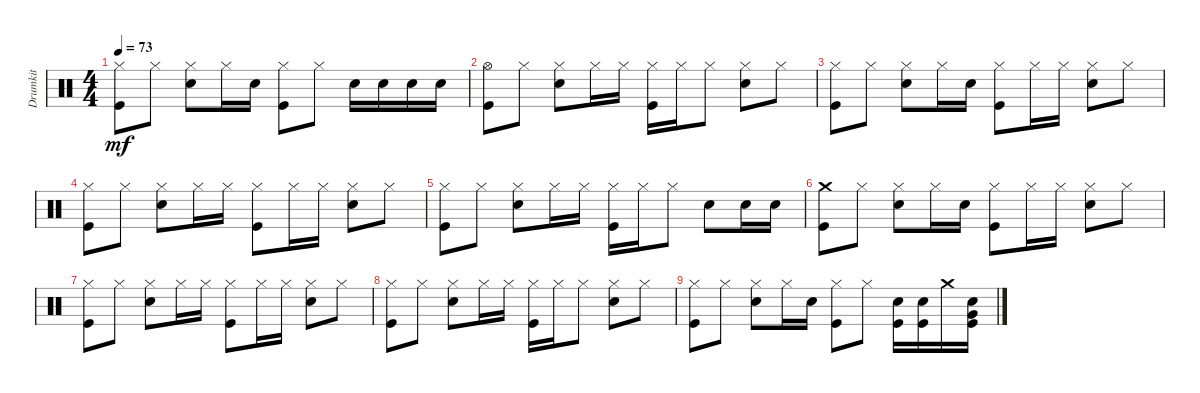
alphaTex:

\track ("Drumkit" "Drumkit") {instrument percussion}
\staff {score}
\articulation defaults
\ts (4 4)
\tempo 73
\clef neutral
\ks c
("Hi-Hat (closed)" "Kick (hit)").8{dy mf} "Hi-Hat (closed)".8 ("Snare (hit) 2" "Hi-Hat (closed)").8 "Hi-Hat (closed)".16 "Snare (hit) 2".16 ("Kick (hit)" "Hi-Hat (closed)").8 "Hi-Hat (closed)".8 "Snare (hit) 2".16 "Snare (hit) 2".16 "Snare (hit) 2".16 "Snare (hit) 2".16 |
("Kick (hit)" "Hi-Hat (open)").8 "Hi-Hat (closed)".8 ("Snare (hit) 2" "Hi-Hat (closed)").8 "Hi-Hat (closed)".16 "Hi-Hat (closed)".16 ("Kick (hit)" "Hi-Hat (closed)").16 "Hi-Hat (closed)".16 "Hi-Hat (closed)".8 ("Hi-Hat (closed)" "Snare (hit) 2").8 "Hi-Hat (closed)".8 |
("Hi-Hat (closed)" "Kick (hit)").8 "Hi-Hat (closed)".8 ("Snare (hit) 2" "Hi-Hat (closed)").8 "Hi-Hat (closed)".16 "Snare (hit) 2".16 ("Kick (hit)" "Hi-Hat (closed)").8 "Hi-Hat (closed)".16 "Hi-Hat (closed)".16 ("Hi-Hat (closed)" "Snare (hit) 2").8 "Hi-Hat (closed)".8 |
("Hi-Hat (closed)" "Kick (hit)").8 "Hi-Hat (closed)".8 ("Snare (hit) 2" "Hi-Hat (closed)").8 "Hi-Hat (closed)".16 "Hi-Hat (closed)".16 ("Kick (hit)" "Hi-Hat (closed)").8 "Hi-Hat (closed)".16 "Hi-Hat (closed)".16 ("Hi-Hat (closed)" "Snare (hit) 2").8 "Hi-Hat (closed)".8 |
("Hi-Hat (closed)" "Kick (hit)").8 "Hi-Hat (closed)".8 ("Snare (hit) 2" "Hi-Hat (closed)").8 "Hi-Hat (closed)".16 "Hi-Hat (closed)".16 ("Kick (hit)" "Hi-Hat (closed)").16 "Hi-Hat (closed)".16 "Hi-Hat (closed)".8 "Snare (hit) 2".8 "Snare (hit) 2".16 "Snare (hit) 2".16 |
("Kick (hit)" "Crash medium (hit)").8 "Hi-Hat (closed)".8 ("Snare (hit) 2" "Hi-Hat (closed)").8 "Hi-Hat (closed)".16 "Snare (hit) 2".16 ("Kick (hit)" "Hi-Hat (closed)").8 "Hi-Hat (closed)".16 "Hi-Hat (closed)".16 ("Hi-Hat (closed)" "Snare (hit) 2").8 "Hi-Hat (closed)".8 |
("Hi-Hat (closed)" "Kick (hit)").8 "Hi-Hat (closed)".8 ("Snare (hit) 2" "Hi-Hat (closed)").8 "Hi-Hat (closed)".16 "Hi-Hat (closed)".16 ("Kick (hit)" "Hi-Hat (closed)").8 "Hi-Hat (closed)".16 "Hi-Hat (closed)".16 ("Hi-Hat (closed)" "Snare (hit) 2").8 "Hi-Hat (closed)".8 |
("Hi-Hat (closed)" "Kick (hit)").8 "Hi-Hat (closed)".8 ("Snare (hit) 2" "Hi-Hat (closed)").8 "Hi-Hat (closed)".16 "Hi-Hat (closed)".16 ("Kick (hit)" "Hi-Hat (closed)").16 "Hi-Hat (closed)".16 "Hi-Hat (closed)".8 ("Hi-Hat (closed)" "Snare (hit) 2").8 "Hi-Hat (closed)".8 |
("Hi-Hat (closed)" "Kick (hit)").8 "Hi-Hat (closed)".8 ("Snare (hit) 2" "Hi-Hat (closed)").8 "Hi-Hat (closed)".16 "Snare (hit) 2".16 ("Kick (hit)" "Hi-Hat (closed)").8 "Hi-Hat (closed)".8 ("Snare (hit) 2" "Kick (hit)").16 ("Snare (hit) 2" "Kick (hit)").16 "Crash medium (hit)".16 ("Snare (hit) 2" "Kick (hit)" "Very Low Tom (hit)").16
